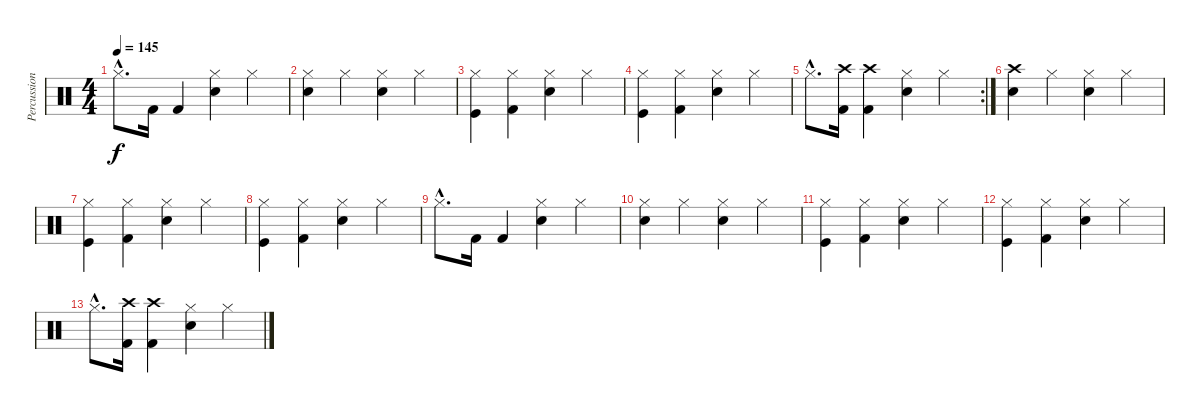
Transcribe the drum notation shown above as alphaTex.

\track ("Percussion" "Percussion") {instrument percussion}
\staff {score}
\articulation defaults
\ts (4 4)
\tempo 145
\clef neutral
\ks c "Hi-Hat (closed)"{hac}.8{d dy f} "Kick (hit) 2".16 "Kick (hit) 2".4
("Hi-Hat (closed)" "Snare (hit) 2").4 "Hi-Hat (closed)".4 |
("Hi-Hat (closed)" "Snare (hit) 2").4 "Hi-Hat (closed)".4 ("Hi-Hat (closed)" "Snare (hit) 2").4 "Hi-Hat (closed)".4 |
("Hi-Hat (closed)" "Kick (hit)").4 ("Hi-Hat (closed)" "Kick (hit) 2").4 ("Hi-Hat (closed)" "Snare (hit) 2").4 "Hi-Hat (closed)".4 |
("Hi-Hat (closed)" "Kick (hit)").4 ("Hi-Hat (closed)" "Kick (hit) 2").4 ("Hi-Hat (closed)" "Snare (hit) 2").4 "Hi-Hat (closed)".4 |
\rc 2 "Hi-Hat (closed)"{hac}.8{d}
("Crash high (hit)" "Kick (hit) 2").16 ("Crash high (hit)" "Kick (hit) 2").4 ("Hi-Hat (closed)" "Snare (hit) 2").4 "Hi-Hat (closed)".4 |
("Crash high (hit)" "Snare (hit) 2").4 "Hi-Hat (closed)".4 ("Hi-Hat (closed)" "Snare (hit) 2").4 "Hi-Hat (closed)".4 |
("Hi-Hat (closed)" "Kick (hit)").4 ("Hi-Hat (closed)" "Kick (hit) 2").4 ("Hi-Hat (closed)" "Snare (hit) 2").4 "Hi-Hat (closed)".4 |
("Hi-Hat (closed)" "Kick (hit)").4 ("Hi-Hat (closed)" "Kick (hit) 2").4 ("Hi-Hat (closed)" "Snare (hit) 2").4 "Hi-Hat (closed)".4 |
"Hi-Hat (closed)"{hac}.8{d} "Kick (hit) 2".16 "Kick (hit) 2".4 ("Hi-Hat (closed)" "Snare (hit) 2").4 "Hi-Hat (closed)".4 |
("Hi-Hat (closed)" "Snare (hit) 2").4 "Hi-Hat (closed)".4 ("Hi-Hat (closed)" "Snare (hit) 2").4 "Hi-Hat (closed)".4 |
("Hi-Hat (closed)" "Kick (hit)").4 ("Hi-Hat (closed)" "Kick (hit) 2").4 ("Hi-Hat (closed)" "Snare (hit) 2").4 "Hi-Hat (closed)".4 |
("Hi-Hat (closed)" "Kick (hit)").4{volume 0} ("Hi-Hat (closed)" "Kick (hit) 2").4 ("Hi-Hat (closed)" "Snare (hit) 2").4 "Hi-Hat (closed)".4 |
"Hi-Hat (closed)"{hac}.8{d} ("Crash high (hit)" "Kick (hit) 2").16 ("Crash high (hit)" "Kick (hit) 2").4 ("Hi-Hat (closed)" "Snare (hit) 2").4 "Hi-Hat (closed)".4
